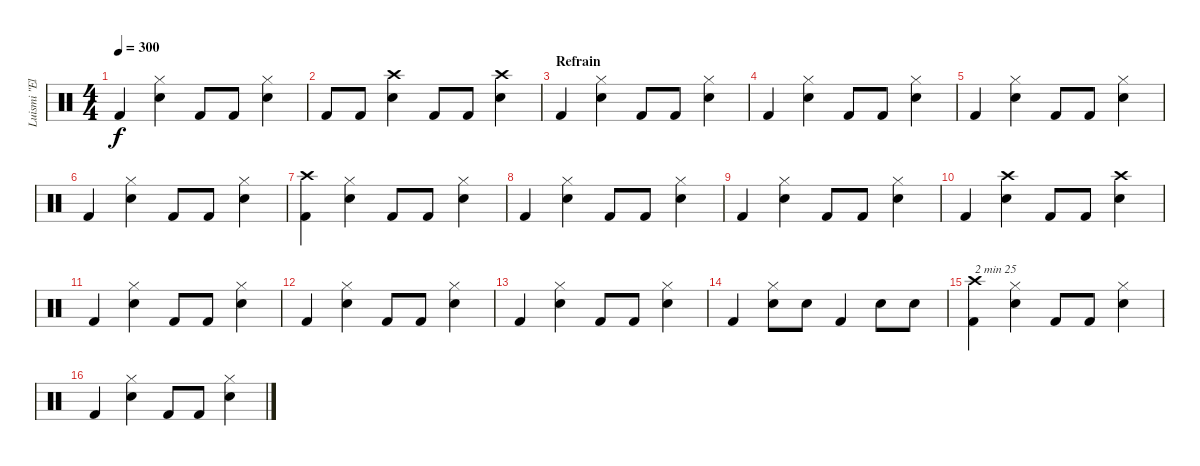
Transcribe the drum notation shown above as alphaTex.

\track ("Luismi \"El Papi\"" "Luismi \"El") {instrument percussion}
\staff {score}
\articulation defaults
\ts (4 4)
\tempo 300
\clef neutral
\ks c "Kick (hit) 2".4{dy f}
("Hi-Hat (closed)" "Snare (hit) 2").4 "Kick (hit) 2".8 "Kick (hit) 2".8 ("Hi-Hat (closed)" "Snare (hit) 2").4 |
"Kick (hit) 2".8 "Kick (hit) 2".8 ("Crash high (hit)" "Snare (hit) 2").4 "Kick (hit) 2".8 "Kick (hit) 2".8 ("Crash high (hit)" "Snare (hit) 2").4 |
\section ("" "Refrain")
"Kick (hit) 2".4 ("Hi-Hat (closed)" "Snare (hit) 2").4 "Kick (hit) 2".8 "Kick (hit) 2".8 ("Hi-Hat (closed)" "Snare (hit) 2").4 |
"Kick (hit) 2".4 ("Hi-Hat (closed)" "Snare (hit) 2").4 "Kick (hit) 2".8 "Kick (hit) 2".8 ("Hi-Hat (closed)" "Snare (hit) 2").4 |
"Kick (hit) 2".4 ("Hi-Hat (closed)" "Snare (hit) 2").4 "Kick (hit) 2".8 "Kick (hit) 2".8 ("Hi-Hat (closed)" "Snare (hit) 2").4 |
"Kick (hit) 2".4 ("Hi-Hat (closed)" "Snare (hit) 2").4 "Kick (hit) 2".8 "Kick (hit) 2".8 ("Hi-Hat (closed)" "Snare (hit) 2").4 |
("Crash high (hit)" "Kick (hit) 2").4 ("Hi-Hat (closed)" "Snare (hit) 2").4 "Kick (hit) 2".8 "Kick (hit) 2".8 ("Hi-Hat (closed)" "Snare (hit) 2").4 |
"Kick (hit) 2".4 ("Hi-Hat (closed)" "Snare (hit) 2").4 "Kick (hit) 2".8 "Kick (hit) 2".8 ("Hi-Hat (closed)" "Snare (hit) 2").4 |
"Kick (hit) 2".4 ("Hi-Hat (closed)" "Snare (hit) 2").4 "Kick (hit) 2".8 "Kick (hit) 2".8 ("Hi-Hat (closed)" "Snare (hit) 2").4 |
"Kick (hit) 2".4 ("Crash high (hit)" "Snare (hit) 2").4 "Kick (hit) 2".8 "Kick (hit) 2".8 ("Crash high (hit)" "Snare (hit) 2").4 |
"Kick (hit) 2".4 ("Hi-Hat (closed)" "Snare (hit) 2").4 "Kick (hit) 2".8 "Kick (hit) 2".8 ("Hi-Hat (closed)" "Snare (hit) 2").4 |
"Kick (hit) 2".4 ("Hi-Hat (closed)" "Snare (hit) 2").4 "Kick (hit) 2".8 "Kick (hit) 2".8 ("Hi-Hat (closed)" "Snare (hit) 2").4 |
"Kick (hit) 2".4 ("Hi-Hat (closed)" "Snare (hit) 2").4 "Kick (hit) 2".8 "Kick (hit) 2".8 ("Hi-Hat (closed)" "Snare (hit) 2").4 |
"Kick (hit) 2".4 ("Hi-Hat (closed)" "Snare (hit) 2").8 "Snare (hit) 2".8 "Kick (hit) 2".4 "Snare (hit) 2".8 "Snare (hit) 2".8 |
("Crash high (hit)" "Kick (hit) 2").4{txt "2 min 25"} ("Hi-Hat (closed)" "Snare (hit) 2").4 "Kick (hit) 2".8 "Kick (hit) 2".8 ("Hi-Hat (closed)" "Snare (hit) 2").4 |
"Kick (hit) 2".4 ("Hi-Hat (closed)" "Snare (hit) 2").4 "Kick (hit) 2".8 "Kick (hit) 2".8 ("Hi-Hat (closed)" "Snare (hit) 2").4
